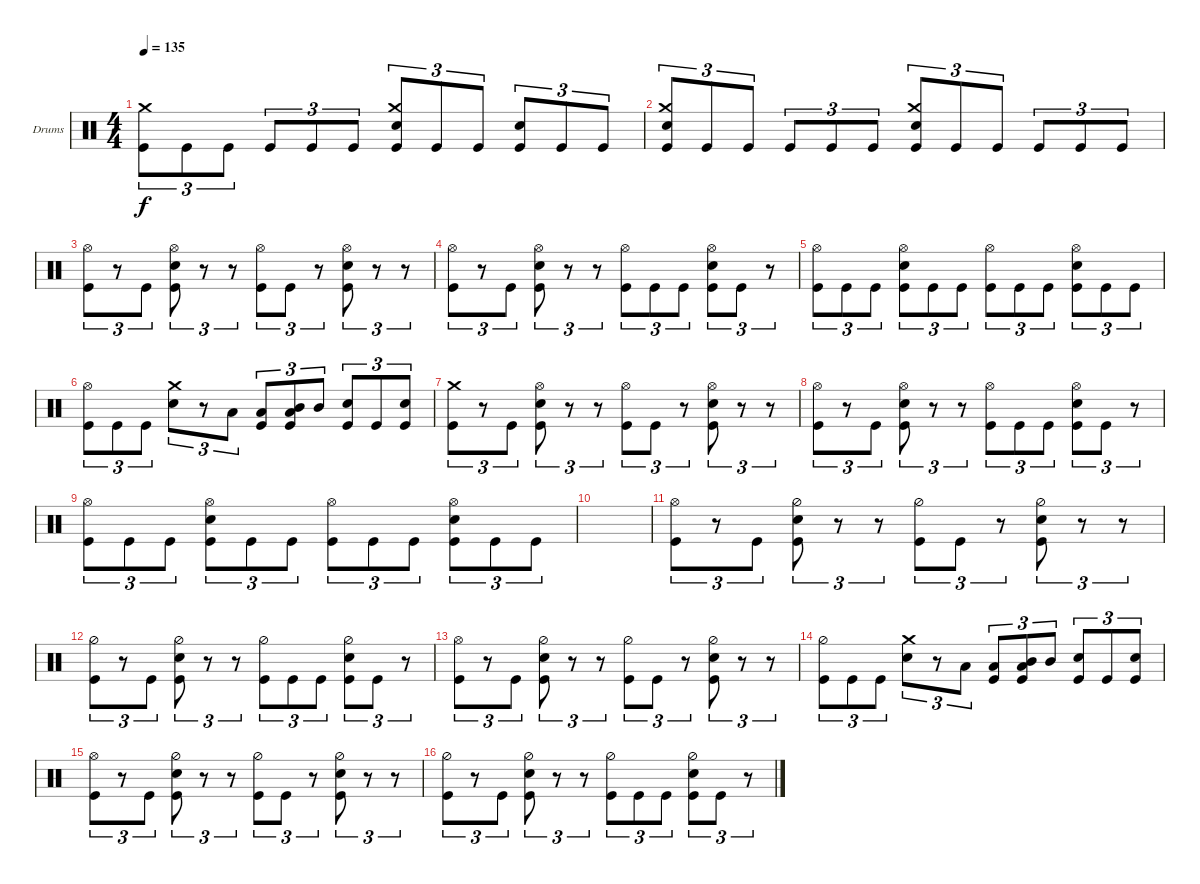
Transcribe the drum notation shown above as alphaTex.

\defaultSystemsLayout 4
\bracketExtendMode groupsimilarinstruments
\firstSystemTrackNameOrientation horizontal
\otherSystemsTrackNameOrientation horizontal
\track ("Drumkit" "Drums") {instrument percussion}
\staff {score}
\articulation defaults
\ts (4 4)
\tempo 135
\clef neutral
\ks c
("Kick (hit)" "Crash medium (hit)").8{tu (3 2) dy f} "Kick (hit)".8{tu (3 2)} "Kick (hit)".8{tu (3 2)} "Kick (hit)".8{tu (3 2)} "Kick (hit)".8{tu (3 2)} "Kick (hit)".8{tu (3 2)} ("Kick (hit)" "Crash medium (hit)" "Snare (hit) 2").8{tu (3 2)} "Kick (hit)".8{tu (3 2)} "Kick (hit)".8{tu (3 2)} ("Kick (hit)" "Snare (hit) 2").8{tu (3 2)} "Kick (hit)".8{tu (3 2)} "Kick (hit)".8{tu (3 2)} |
("Kick (hit)" "Crash medium (hit)" "Snare (hit) 2").8{tu (3 2)} "Kick (hit)".8{tu (3 2)} "Kick (hit)".8{tu (3 2)} "Kick (hit)".8{tu (3 2)} "Kick (hit)".8{tu (3 2)} "Kick (hit)".8{tu (3 2)} ("Kick (hit)" "Crash medium (hit)" "Snare (hit) 2").8{tu (3 2)} "Kick (hit)".8{tu (3 2)} "Kick (hit)".8{tu (3 2)} "Kick (hit)".8{tu (3 2)} "Kick (hit)".8{tu (3 2)} "Kick (hit)".8{tu (3 2)} |
("Kick (hit)" "Hi-Hat (open)").8{tu (3 2)} r.8{tu (3 2)} "Kick (hit)".8{tu (3 2)} ("Kick (hit)" "Snare (hit) 2" "Hi-Hat (open)").8{tu (3 2)} r.8{tu (3 2)} r.8{tu (3 2)} ("Kick (hit)" "Hi-Hat (open)").8{tu (3 2)} "Kick (hit)".8{tu (3 2)} r.8{tu (3 2)} ("Kick (hit)" "Snare (hit) 2" "Hi-Hat (open)").8{tu (3 2)} r.8{tu (3 2)} r.8{tu (3 2)} |
("Kick (hit)" "Hi-Hat (open)").8{tu (3 2)} r.8{tu (3 2)} "Kick (hit)".8{tu (3 2)} ("Kick (hit)" "Snare (hit) 2" "Hi-Hat (open)").8{tu (3 2)} r.8{tu (3 2)} r.8{tu (3 2)} ("Kick (hit)" "Hi-Hat (open)").8{tu (3 2)} "Kick (hit)".8{tu (3 2)} "Kick (hit)".8{tu (3 2)} ("Kick (hit)" "Snare (hit) 2" "Hi-Hat (open)").8{tu (3 2)} "Kick (hit)".8{tu (3 2)} r.8{tu (3 2)} |
("Kick (hit)" "Hi-Hat (open)").8{tu (3 2)} "Kick (hit)".8{tu (3 2)} "Kick (hit)".8{tu (3 2)} ("Kick (hit)" "Hi-Hat (open)" "Snare (hit) 2").8{tu (3 2)} "Kick (hit)".8{tu (3 2)} "Kick (hit)".8{tu (3 2)} ("Kick (hit)" "Hi-Hat (open)").8{tu (3 2)} "Kick (hit)".8{tu (3 2)} "Kick (hit)".8{tu (3 2)} ("Kick (hit)" "Hi-Hat (open)" "Snare (hit) 2").8{tu (3 2)} "Kick (hit)".8{tu (3 2)} "Kick (hit)".8{tu (3 2)} |
("Kick (hit)" "Hi-Hat (open)").8{tu (3 2)} "Kick (hit)".8{tu (3 2)} "Kick (hit)".8{tu (3 2)} ("Snare (hit) 2" "Crash medium (hit)").8{tu (3 2)} r.8{tu (3 2)} "Low Tom (hit)".8{tu (3 2)} ("Kick (hit)" "Low Tom (hit)").8{tu (3 2)} ("Kick (hit)" "Low Tom (hit)" "Mid Tom (hit)").8{tu (3 2)} "Mid Tom (hit)".8{tu (3 2)} ("Kick (hit)" "Snare (hit) 2").8{tu (3 2)} "Kick (hit)".8{tu (3 2)} ("Kick (hit)" "Snare (hit) 2").8{tu (3 2)} |
("Kick (hit)" "Crash medium (hit)").8{tu (3 2)} r.8{tu (3 2)} "Kick (hit)".8{tu (3 2)} ("Kick (hit)" "Snare (hit) 2" "Hi-Hat (open)").8{tu (3 2)} r.8{tu (3 2)} r.8{tu (3 2)} ("Kick (hit)" "Hi-Hat (open)").8{tu (3 2)} "Kick (hit)".8{tu (3 2)} r.8{tu (3 2)} ("Kick (hit)" "Snare (hit) 2" "Hi-Hat (open)").8{tu (3 2)} r.8{tu (3 2)} r.8{tu (3 2)} |
("Kick (hit)" "Hi-Hat (open)").8{tu (3 2)} r.8{tu (3 2)} "Kick (hit)".8{tu (3 2)} ("Kick (hit)" "Snare (hit) 2" "Hi-Hat (open)").8{tu (3 2)} r.8{tu (3 2)} r.8{tu (3 2)} ("Kick (hit)" "Hi-Hat (open)").8{tu (3 2)} "Kick (hit)".8{tu (3 2)} "Kick (hit)".8{tu (3 2)} ("Kick (hit)" "Snare (hit) 2" "Hi-Hat (open)").8{tu (3 2)} "Kick (hit)".8{tu (3 2)} r.8{tu (3 2)} |
("Kick (hit)" "Hi-Hat (open)").8{tu (3 2)} "Kick (hit)".8{tu (3 2)} "Kick (hit)".8{tu (3 2)} ("Kick (hit)" "Hi-Hat (open)" "Snare (hit) 2").8{tu (3 2)} "Kick (hit)".8{tu (3 2)} "Kick (hit)".8{tu (3 2)} ("Kick (hit)" "Hi-Hat (open)").8{tu (3 2)} "Kick (hit)".8{tu (3 2)} "Kick (hit)".8{tu (3 2)} ("Kick (hit)" "Hi-Hat (open)" "Snare (hit) 2").8{tu (3 2)} "Kick (hit)".8{tu (3 2)} "Kick (hit)".8{tu (3 2)} |
|
("Kick (hit)" "Hi-Hat (open)").8{tu (3 2)} r.8{tu (3 2)} "Kick (hit)".8{tu (3 2)} ("Kick (hit)" "Snare (hit) 2" "Hi-Hat (half)").8{tu (3 2)} r.8{tu (3 2)} r.8{tu (3 2)} ("Kick (hit)" "Hi-Hat (half)").8{tu (3 2)} "Kick (hit)".8{tu (3 2)} r.8{tu (3 2)} ("Kick (hit)" "Snare (hit) 2" "Hi-Hat (half)").8{tu (3 2)} r.8{tu (3 2)} r.8{tu (3 2)} |
("Kick (hit)" "Hi-Hat (half)").8{tu (3 2)} r.8{tu (3 2)} "Kick (hit)".8{tu (3 2)} ("Kick (hit)" "Snare (hit) 2" "Hi-Hat (half)").8{tu (3 2)} r.8{tu (3 2)} r.8{tu (3 2)} ("Kick (hit)" "Hi-Hat (half)").8{tu (3 2)} "Kick (hit)".8{tu (3 2)} "Kick (hit)".8{tu (3 2)} ("Kick (hit)" "Snare (hit) 2" "Hi-Hat (half)").8{tu (3 2)} "Kick (hit)".8{tu (3 2)} r.8{tu (3 2)} |
("Kick (hit)" "Hi-Hat (open)").8{tu (3 2)} r.8{tu (3 2)} "Kick (hit)".8{tu (3 2)} ("Kick (hit)" "Snare (hit) 2" "Hi-Hat (half)").8{tu (3 2)} r.8{tu (3 2)} r.8{tu (3 2)} ("Kick (hit)" "Hi-Hat (half)").8{tu (3 2)} "Kick (hit)".8{tu (3 2)} r.8{tu (3 2)} ("Kick (hit)" "Snare (hit) 2" "Hi-Hat (half)").8{tu (3 2)} r.8{tu (3 2)} r.8{tu (3 2)} |
("Kick (hit)" "Hi-Hat (half)").8{tu (3 2)} "Kick (hit)".8{tu (3 2)} "Kick (hit)".8{tu (3 2)} ("Snare (hit) 2" "Crash medium (hit)").8{tu (3 2)} r.8{tu (3 2)} "Low Tom (hit)".8{tu (3 2)} ("Kick (hit)" "Low Tom (hit)").8{tu (3 2)} ("Kick (hit)" "Low Tom (hit)" "Mid Tom (hit)").8{tu (3 2)} "Mid Tom (hit)".8{tu (3 2)} ("Kick (hit)" "Snare (hit) 2").8{tu (3 2)} "Kick (hit)".8{tu (3 2)} ("Kick (hit)" "Snare (hit) 2").8{tu (3 2)} |
("Kick (hit)" "Hi-Hat (open)").8{tu (3 2)} r.8{tu (3 2)} "Kick (hit)".8{tu (3 2)} ("Kick (hit)" "Snare (hit) 2" "Hi-Hat (half)").8{tu (3 2)} r.8{tu (3 2)} r.8{tu (3 2)} ("Kick (hit)" "Hi-Hat (half)").8{tu (3 2)} "Kick (hit)".8{tu (3 2)} r.8{tu (3 2)} ("Kick (hit)" "Snare (hit) 2" "Hi-Hat (half)").8{tu (3 2)} r.8{tu (3 2)} r.8{tu (3 2)} |
("Kick (hit)" "Hi-Hat (half)").8{tu (3 2)} r.8{tu (3 2)} "Kick (hit)".8{tu (3 2)} ("Kick (hit)" "Snare (hit) 2" "Hi-Hat (half)").8{tu (3 2)} r.8{tu (3 2)} r.8{tu (3 2)} ("Kick (hit)" "Hi-Hat (half)").8{tu (3 2)} "Kick (hit)".8{tu (3 2)} "Kick (hit)".8{tu (3 2)} ("Kick (hit)" "Snare (hit) 2" "Hi-Hat (half)").8{tu (3 2)} "Kick (hit)".8{tu (3 2)} r.8{tu (3 2)}
